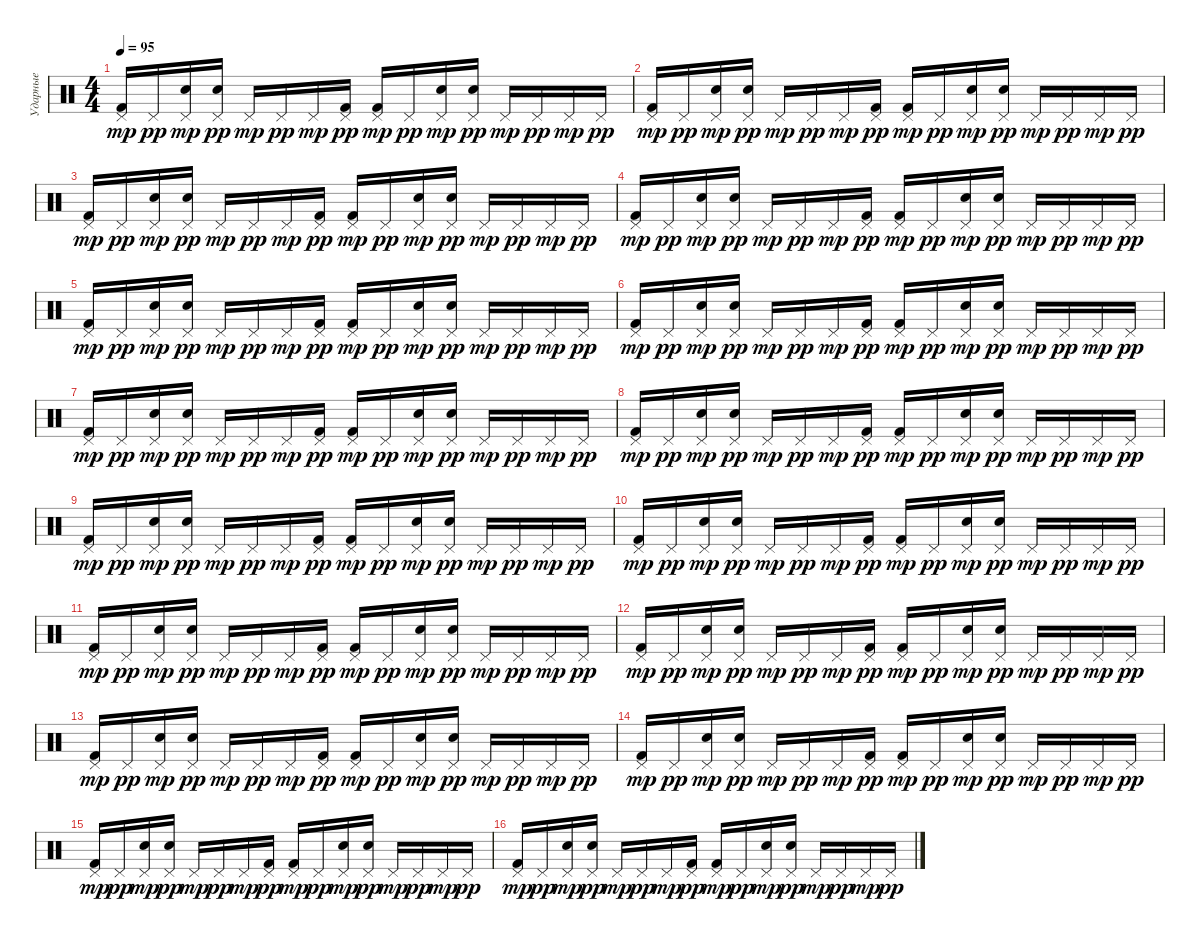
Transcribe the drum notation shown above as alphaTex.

\track ("Ударные" "Ударные") {instrument percussion}
\staff {score}
\articulation defaults
\ts (4 4)
\tempo 95
\clef neutral
\ks c
("Pedal Hi-Hat (hit)" "Kick (hit) 2").16{dy mp} "Pedal Hi-Hat (hit)".16{dy pp} ("Pedal Hi-Hat (hit)" "Snare (hit) 2").16{dy mp} ("Pedal Hi-Hat (hit)" "Snare (hit) 2").16{dy pp} "Pedal Hi-Hat (hit)".16{dy mp} "Pedal Hi-Hat (hit)".16{dy pp} "Pedal Hi-Hat (hit)".16{dy mp} ("Pedal Hi-Hat (hit)" "Kick (hit) 2").16{dy pp} ("Pedal Hi-Hat (hit)" "Kick (hit) 2").16{dy mp} "Pedal Hi-Hat (hit)".16{dy pp} ("Pedal Hi-Hat (hit)" "Snare (hit) 2").16{dy mp} ("Pedal Hi-Hat (hit)" "Snare (hit) 2").16{dy pp} "Pedal Hi-Hat (hit)".16{dy mp} "Pedal Hi-Hat (hit)".16{dy pp} "Pedal Hi-Hat (hit)".16{dy mp} "Pedal Hi-Hat (hit)".16{dy pp} |
("Pedal Hi-Hat (hit)" "Kick (hit) 2").16{dy mp} "Pedal Hi-Hat (hit)".16{dy pp} ("Pedal Hi-Hat (hit)" "Snare (hit) 2").16{dy mp} ("Pedal Hi-Hat (hit)" "Snare (hit) 2").16{dy pp} "Pedal Hi-Hat (hit)".16{dy mp} "Pedal Hi-Hat (hit)".16{dy pp} "Pedal Hi-Hat (hit)".16{dy mp} ("Pedal Hi-Hat (hit)" "Kick (hit) 2").16{dy pp} ("Pedal Hi-Hat (hit)" "Kick (hit) 2").16{dy mp} "Pedal Hi-Hat (hit)".16{dy pp} ("Pedal Hi-Hat (hit)" "Snare (hit) 2").16{dy mp} ("Pedal Hi-Hat (hit)" "Snare (hit) 2").16{dy pp} "Pedal Hi-Hat (hit)".16{dy mp} "Pedal Hi-Hat (hit)".16{dy pp} "Pedal Hi-Hat (hit)".16{dy mp} "Pedal Hi-Hat (hit)".16{dy pp} |
("Pedal Hi-Hat (hit)" "Kick (hit) 2").16{dy mp} "Pedal Hi-Hat (hit)".16{dy pp} ("Pedal Hi-Hat (hit)" "Snare (hit) 2").16{dy mp} ("Pedal Hi-Hat (hit)" "Snare (hit) 2").16{dy pp} "Pedal Hi-Hat (hit)".16{dy mp} "Pedal Hi-Hat (hit)".16{dy pp} "Pedal Hi-Hat (hit)".16{dy mp} ("Pedal Hi-Hat (hit)" "Kick (hit) 2").16{dy pp} ("Pedal Hi-Hat (hit)" "Kick (hit) 2").16{dy mp} "Pedal Hi-Hat (hit)".16{dy pp} ("Pedal Hi-Hat (hit)" "Snare (hit) 2").16{dy mp} ("Pedal Hi-Hat (hit)" "Snare (hit) 2").16{dy pp} "Pedal Hi-Hat (hit)".16{dy mp} "Pedal Hi-Hat (hit)".16{dy pp} "Pedal Hi-Hat (hit)".16{dy mp} "Pedal Hi-Hat (hit)".16{dy pp} |
("Pedal Hi-Hat (hit)" "Kick (hit) 2").16{dy mp} "Pedal Hi-Hat (hit)".16{dy pp} ("Pedal Hi-Hat (hit)" "Snare (hit) 2").16{dy mp} ("Pedal Hi-Hat (hit)" "Snare (hit) 2").16{dy pp} "Pedal Hi-Hat (hit)".16{dy mp} "Pedal Hi-Hat (hit)".16{dy pp} "Pedal Hi-Hat (hit)".16{dy mp} ("Pedal Hi-Hat (hit)" "Kick (hit) 2").16{dy pp} ("Pedal Hi-Hat (hit)" "Kick (hit) 2").16{dy mp} "Pedal Hi-Hat (hit)".16{dy pp} ("Pedal Hi-Hat (hit)" "Snare (hit) 2").16{dy mp} ("Pedal Hi-Hat (hit)" "Snare (hit) 2").16{dy pp} "Pedal Hi-Hat (hit)".16{dy mp} "Pedal Hi-Hat (hit)".16{dy pp} "Pedal Hi-Hat (hit)".16{dy mp} "Pedal Hi-Hat (hit)".16{dy pp} |
("Pedal Hi-Hat (hit)" "Kick (hit) 2").16{dy mp} "Pedal Hi-Hat (hit)".16{dy pp} ("Pedal Hi-Hat (hit)" "Snare (hit) 2").16{dy mp} ("Pedal Hi-Hat (hit)" "Snare (hit) 2").16{dy pp} "Pedal Hi-Hat (hit)".16{dy mp} "Pedal Hi-Hat (hit)".16{dy pp} "Pedal Hi-Hat (hit)".16{dy mp} ("Pedal Hi-Hat (hit)" "Kick (hit) 2").16{dy pp} ("Pedal Hi-Hat (hit)" "Kick (hit) 2").16{dy mp} "Pedal Hi-Hat (hit)".16{dy pp} ("Pedal Hi-Hat (hit)" "Snare (hit) 2").16{dy mp} ("Pedal Hi-Hat (hit)" "Snare (hit) 2").16{dy pp} "Pedal Hi-Hat (hit)".16{dy mp} "Pedal Hi-Hat (hit)".16{dy pp} "Pedal Hi-Hat (hit)".16{dy mp} "Pedal Hi-Hat (hit)".16{dy pp} |
("Pedal Hi-Hat (hit)" "Kick (hit) 2").16{dy mp} "Pedal Hi-Hat (hit)".16{dy pp} ("Pedal Hi-Hat (hit)" "Snare (hit) 2").16{dy mp} ("Pedal Hi-Hat (hit)" "Snare (hit) 2").16{dy pp} "Pedal Hi-Hat (hit)".16{dy mp} "Pedal Hi-Hat (hit)".16{dy pp} "Pedal Hi-Hat (hit)".16{dy mp} ("Pedal Hi-Hat (hit)" "Kick (hit) 2").16{dy pp} ("Pedal Hi-Hat (hit)" "Kick (hit) 2").16{dy mp} "Pedal Hi-Hat (hit)".16{dy pp} ("Pedal Hi-Hat (hit)" "Snare (hit) 2").16{dy mp} ("Pedal Hi-Hat (hit)" "Snare (hit) 2").16{dy pp} "Pedal Hi-Hat (hit)".16{dy mp} "Pedal Hi-Hat (hit)".16{dy pp} "Pedal Hi-Hat (hit)".16{dy mp} "Pedal Hi-Hat (hit)".16{dy pp} |
("Pedal Hi-Hat (hit)" "Kick (hit) 2").16{dy mp} "Pedal Hi-Hat (hit)".16{dy pp} ("Pedal Hi-Hat (hit)" "Snare (hit) 2").16{dy mp} ("Pedal Hi-Hat (hit)" "Snare (hit) 2").16{dy pp} "Pedal Hi-Hat (hit)".16{dy mp} "Pedal Hi-Hat (hit)".16{dy pp} "Pedal Hi-Hat (hit)".16{dy mp} ("Pedal Hi-Hat (hit)" "Kick (hit) 2").16{dy pp} ("Pedal Hi-Hat (hit)" "Kick (hit) 2").16{dy mp} "Pedal Hi-Hat (hit)".16{dy pp} ("Pedal Hi-Hat (hit)" "Snare (hit) 2").16{dy mp} ("Pedal Hi-Hat (hit)" "Snare (hit) 2").16{dy pp} "Pedal Hi-Hat (hit)".16{dy mp} "Pedal Hi-Hat (hit)".16{dy pp} "Pedal Hi-Hat (hit)".16{dy mp} "Pedal Hi-Hat (hit)".16{dy pp} |
("Pedal Hi-Hat (hit)" "Kick (hit) 2").16{dy mp} "Pedal Hi-Hat (hit)".16{dy pp} ("Pedal Hi-Hat (hit)" "Snare (hit) 2").16{dy mp} ("Pedal Hi-Hat (hit)" "Snare (hit) 2").16{dy pp} "Pedal Hi-Hat (hit)".16{dy mp} "Pedal Hi-Hat (hit)".16{dy pp} "Pedal Hi-Hat (hit)".16{dy mp} ("Pedal Hi-Hat (hit)" "Kick (hit) 2").16{dy pp} ("Pedal Hi-Hat (hit)" "Kick (hit) 2").16{dy mp} "Pedal Hi-Hat (hit)".16{dy pp} ("Pedal Hi-Hat (hit)" "Snare (hit) 2").16{dy mp} ("Pedal Hi-Hat (hit)" "Snare (hit) 2").16{dy pp} "Pedal Hi-Hat (hit)".16{dy mp} "Pedal Hi-Hat (hit)".16{dy pp} "Pedal Hi-Hat (hit)".16{dy mp} "Pedal Hi-Hat (hit)".16{dy pp} |
("Pedal Hi-Hat (hit)" "Kick (hit) 2").16{dy mp} "Pedal Hi-Hat (hit)".16{dy pp} ("Pedal Hi-Hat (hit)" "Snare (hit) 2").16{dy mp} ("Pedal Hi-Hat (hit)" "Snare (hit) 2").16{dy pp} "Pedal Hi-Hat (hit)".16{dy mp} "Pedal Hi-Hat (hit)".16{dy pp} "Pedal Hi-Hat (hit)".16{dy mp} ("Pedal Hi-Hat (hit)" "Kick (hit) 2").16{dy pp} ("Pedal Hi-Hat (hit)" "Kick (hit) 2").16{dy mp} "Pedal Hi-Hat (hit)".16{dy pp} ("Pedal Hi-Hat (hit)" "Snare (hit) 2").16{dy mp} ("Pedal Hi-Hat (hit)" "Snare (hit) 2").16{dy pp} "Pedal Hi-Hat (hit)".16{dy mp} "Pedal Hi-Hat (hit)".16{dy pp} "Pedal Hi-Hat (hit)".16{dy mp} "Pedal Hi-Hat (hit)".16{dy pp} |
("Pedal Hi-Hat (hit)" "Kick (hit) 2").16{dy mp} "Pedal Hi-Hat (hit)".16{dy pp} ("Pedal Hi-Hat (hit)" "Snare (hit) 2").16{dy mp} ("Pedal Hi-Hat (hit)" "Snare (hit) 2").16{dy pp} "Pedal Hi-Hat (hit)".16{dy mp} "Pedal Hi-Hat (hit)".16{dy pp} "Pedal Hi-Hat (hit)".16{dy mp} ("Pedal Hi-Hat (hit)" "Kick (hit) 2").16{dy pp} ("Pedal Hi-Hat (hit)" "Kick (hit) 2").16{dy mp} "Pedal Hi-Hat (hit)".16{dy pp} ("Pedal Hi-Hat (hit)" "Snare (hit) 2").16{dy mp} ("Pedal Hi-Hat (hit)" "Snare (hit) 2").16{dy pp} "Pedal Hi-Hat (hit)".16{dy mp} "Pedal Hi-Hat (hit)".16{dy pp} "Pedal Hi-Hat (hit)".16{dy mp} "Pedal Hi-Hat (hit)".16{dy pp} |
("Pedal Hi-Hat (hit)" "Kick (hit) 2").16{dy mp} "Pedal Hi-Hat (hit)".16{dy pp} ("Pedal Hi-Hat (hit)" "Snare (hit) 2").16{dy mp} ("Pedal Hi-Hat (hit)" "Snare (hit) 2").16{dy pp} "Pedal Hi-Hat (hit)".16{dy mp} "Pedal Hi-Hat (hit)".16{dy pp} "Pedal Hi-Hat (hit)".16{dy mp} ("Pedal Hi-Hat (hit)" "Kick (hit) 2").16{dy pp} ("Pedal Hi-Hat (hit)" "Kick (hit) 2").16{dy mp} "Pedal Hi-Hat (hit)".16{dy pp} ("Pedal Hi-Hat (hit)" "Snare (hit) 2").16{dy mp} ("Pedal Hi-Hat (hit)" "Snare (hit) 2").16{dy pp} "Pedal Hi-Hat (hit)".16{dy mp} "Pedal Hi-Hat (hit)".16{dy pp} "Pedal Hi-Hat (hit)".16{dy mp} "Pedal Hi-Hat (hit)".16{dy pp} |
("Pedal Hi-Hat (hit)" "Kick (hit) 2").16{dy mp} "Pedal Hi-Hat (hit)".16{dy pp} ("Pedal Hi-Hat (hit)" "Snare (hit) 2").16{dy mp} ("Pedal Hi-Hat (hit)" "Snare (hit) 2").16{dy pp} "Pedal Hi-Hat (hit)".16{dy mp} "Pedal Hi-Hat (hit)".16{dy pp} "Pedal Hi-Hat (hit)".16{dy mp} ("Pedal Hi-Hat (hit)" "Kick (hit) 2").16{dy pp} ("Pedal Hi-Hat (hit)" "Kick (hit) 2").16{dy mp} "Pedal Hi-Hat (hit)".16{dy pp} ("Pedal Hi-Hat (hit)" "Snare (hit) 2").16{dy mp} ("Pedal Hi-Hat (hit)" "Snare (hit) 2").16{dy pp} "Pedal Hi-Hat (hit)".16{dy mp} "Pedal Hi-Hat (hit)".16{dy pp} "Pedal Hi-Hat (hit)".16{dy mp} "Pedal Hi-Hat (hit)".16{dy pp} |
("Pedal Hi-Hat (hit)" "Kick (hit) 2").16{dy mp} "Pedal Hi-Hat (hit)".16{dy pp} ("Pedal Hi-Hat (hit)" "Snare (hit) 2").16{dy mp} ("Pedal Hi-Hat (hit)" "Snare (hit) 2").16{dy pp} "Pedal Hi-Hat (hit)".16{dy mp} "Pedal Hi-Hat (hit)".16{dy pp} "Pedal Hi-Hat (hit)".16{dy mp} ("Pedal Hi-Hat (hit)" "Kick (hit) 2").16{dy pp} ("Pedal Hi-Hat (hit)" "Kick (hit) 2").16{dy mp} "Pedal Hi-Hat (hit)".16{dy pp} ("Pedal Hi-Hat (hit)" "Snare (hit) 2").16{dy mp} ("Pedal Hi-Hat (hit)" "Snare (hit) 2").16{dy pp} "Pedal Hi-Hat (hit)".16{dy mp} "Pedal Hi-Hat (hit)".16{dy pp} "Pedal Hi-Hat (hit)".16{dy mp} "Pedal Hi-Hat (hit)".16{dy pp} |
("Pedal Hi-Hat (hit)" "Kick (hit) 2").16{dy mp} "Pedal Hi-Hat (hit)".16{dy pp} ("Pedal Hi-Hat (hit)" "Snare (hit) 2").16{dy mp} ("Pedal Hi-Hat (hit)" "Snare (hit) 2").16{dy pp} "Pedal Hi-Hat (hit)".16{dy mp} "Pedal Hi-Hat (hit)".16{dy pp} "Pedal Hi-Hat (hit)".16{dy mp} ("Pedal Hi-Hat (hit)" "Kick (hit) 2").16{dy pp} ("Pedal Hi-Hat (hit)" "Kick (hit) 2").16{dy mp} "Pedal Hi-Hat (hit)".16{dy pp} ("Pedal Hi-Hat (hit)" "Snare (hit) 2").16{dy mp} ("Pedal Hi-Hat (hit)" "Snare (hit) 2").16{dy pp} "Pedal Hi-Hat (hit)".16{dy mp} "Pedal Hi-Hat (hit)".16{dy pp} "Pedal Hi-Hat (hit)".16{dy mp} "Pedal Hi-Hat (hit)".16{dy pp} |
("Pedal Hi-Hat (hit)" "Kick (hit) 2").16{dy mp} "Pedal Hi-Hat (hit)".16{dy pp} ("Pedal Hi-Hat (hit)" "Snare (hit) 2").16{dy mp} ("Pedal Hi-Hat (hit)" "Snare (hit) 2").16{dy pp} "Pedal Hi-Hat (hit)".16{dy mp} "Pedal Hi-Hat (hit)".16{dy pp} "Pedal Hi-Hat (hit)".16{dy mp} ("Pedal Hi-Hat (hit)" "Kick (hit) 2").16{dy pp} ("Pedal Hi-Hat (hit)" "Kick (hit) 2").16{dy mp} "Pedal Hi-Hat (hit)".16{dy pp} ("Pedal Hi-Hat (hit)" "Snare (hit) 2").16{dy mp} ("Pedal Hi-Hat (hit)" "Snare (hit) 2").16{dy pp} "Pedal Hi-Hat (hit)".16{dy mp} "Pedal Hi-Hat (hit)".16{dy pp} "Pedal Hi-Hat (hit)".16{dy mp} "Pedal Hi-Hat (hit)".16{dy pp} |
("Pedal Hi-Hat (hit)" "Kick (hit) 2").16{dy mp} "Pedal Hi-Hat (hit)".16{dy pp} ("Pedal Hi-Hat (hit)" "Snare (hit) 2").16{dy mp} ("Pedal Hi-Hat (hit)" "Snare (hit) 2").16{dy pp} "Pedal Hi-Hat (hit)".16{dy mp} "Pedal Hi-Hat (hit)".16{dy pp} "Pedal Hi-Hat (hit)".16{dy mp} ("Pedal Hi-Hat (hit)" "Kick (hit) 2").16{dy pp} ("Pedal Hi-Hat (hit)" "Kick (hit) 2").16{dy mp} "Pedal Hi-Hat (hit)".16{dy pp} ("Pedal Hi-Hat (hit)" "Snare (hit) 2").16{dy mp} ("Pedal Hi-Hat (hit)" "Snare (hit) 2").16{dy pp} "Pedal Hi-Hat (hit)".16{dy mp} "Pedal Hi-Hat (hit)".16{dy pp} "Pedal Hi-Hat (hit)".16{dy mp} "Pedal Hi-Hat (hit)".16{dy pp}
